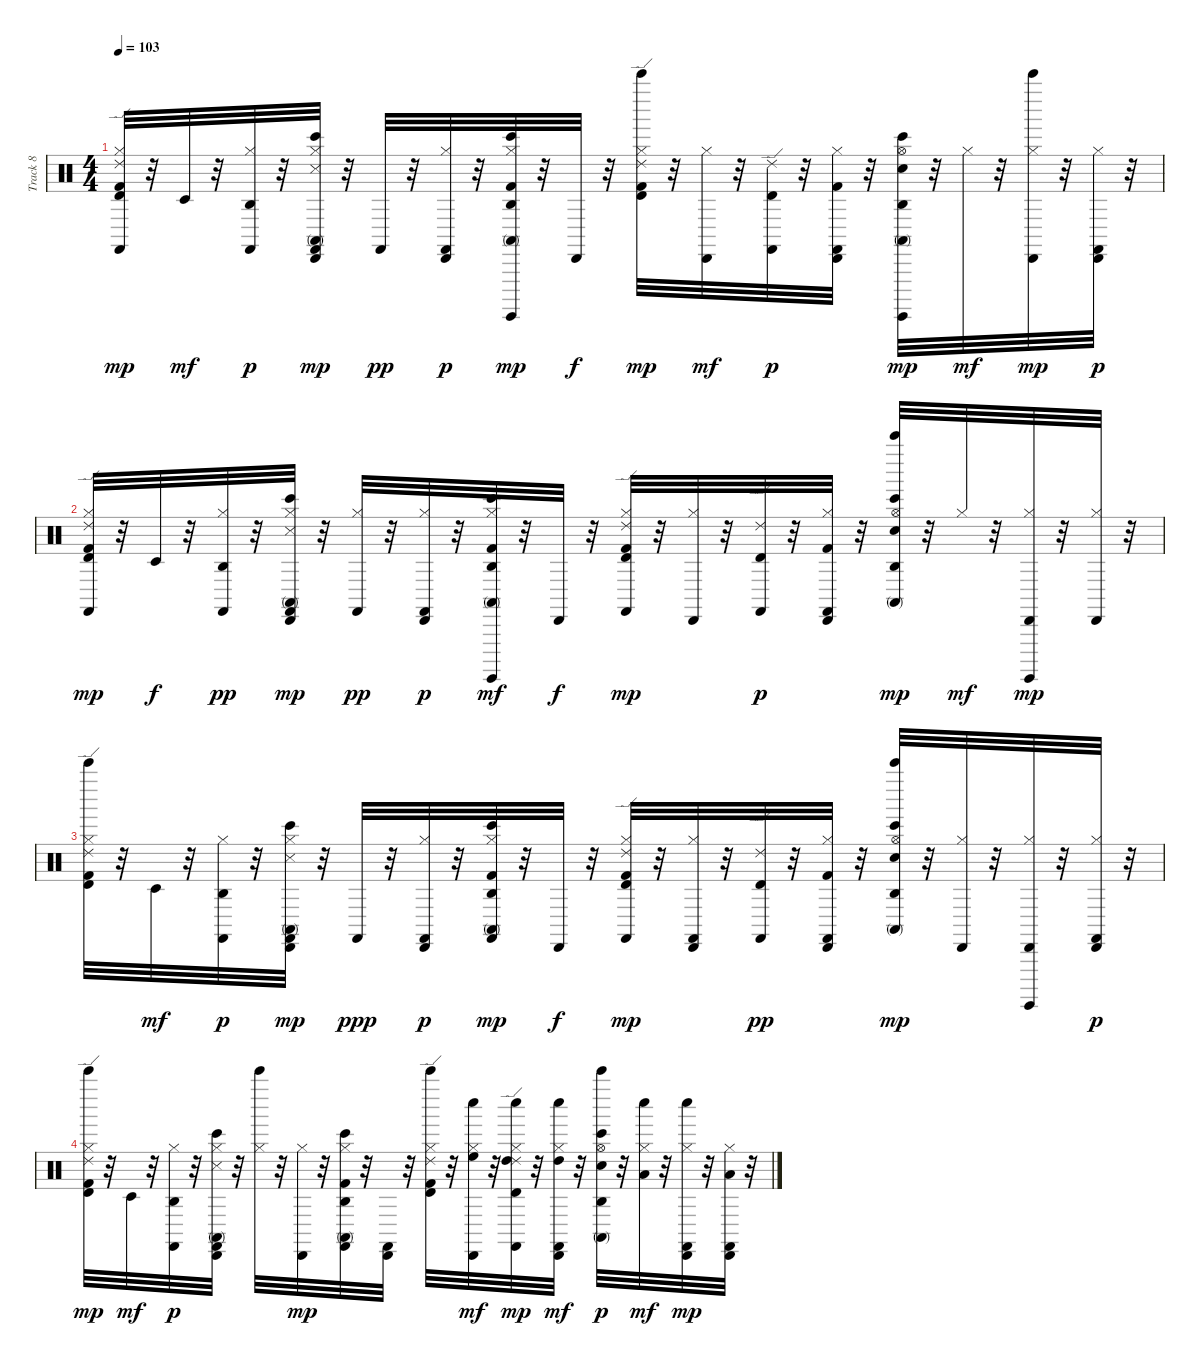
\track ("Track 8" "Track 8") {instrument percussion}
\staff {score}
\articulation defaults
\ts (4 4)
\tempo 103
\clef neutral
\ks c
("Ride (edge) 2" "Timbale high (hit)" "Kick (hit) 2" "Hi-Hat (closed)" "Castanets (hit)").32{dy mp} r.32 "Timbale low (hit)".32{dy mf} r.32 ("Agogo high (hit)" "Hi-Hat (closed)" "Castanets (hit)").32{dy p} r.32 ("Bongo High (hit)" "Conga high (mute)" "Cabasa (hit)" "Snare (side stick) 3" "Castanets (hit)" "Hi-Hat (closed)").32{dy mp} r.32 "Castanets (hit)".32{dy pp} r.32 ("Cabasa (hit)" "Hi-Hat (closed)" "Castanets (hit)").32{dy p} r.32 ("Bongo High (hit)" "Conga high (mute)" "Agogo high (hit)" "Kick (hit) 2" "Hi-Hat (closed)" "Surdo (hit)").32{dy mp} r.32 "Cabasa (hit)".32{dy f} r.32 ("Ride (edge) 2" "Timbale high (hit)" "Kick (hit) 2" "Hi-Hat (closed)" "Bell Tree (hit)").32{dy mp} r.32 ("Cabasa (hit)" "Hi-Hat (closed)").32{dy mf} r.32 ("Ride (edge) 2" "Timbale high (hit)" "Castanets (hit)").32{dy p} r.32 ("Cabasa (hit)" "Kick (hit) 2" "Hi-Hat (closed)" "Castanets (hit)").32 r.32 ("Bongo High (hit)" "Conga high (mute)" "Agogo high (hit)" "Electric Snare (hit)" "Hi-Hat (open)" "Surdo (hit)").32{dy mp} r.32 "Hi-Hat (closed)".32{dy mf} r.32 ("Cabasa (hit)" "Hi-Hat (closed)" "Bell Tree (hit)").32{dy mp} r.32 ("Cabasa (hit)" "Hi-Hat (closed)" "Castanets (hit)").32{dy p} r.32 |
("Ride (edge) 2" "Timbale high (hit)" "Kick (hit) 2" "Hi-Hat (closed)" "Castanets (hit)").32{dy mp} r.32 "Timbale low (hit)".32{dy f} r.32 ("Agogo high (hit)" "Hi-Hat (closed)" "Castanets (hit)").32{dy pp} r.32 ("Bongo High (hit)" "Conga high (mute)" "Cabasa (hit)" "Snare (side stick) 3" "Hi-Hat (closed)" "Castanets (hit)").32{dy mp} r.32 ("Hi-Hat (closed)" "Castanets (hit)").32{dy pp} r.32 ("Cabasa (hit)" "Hi-Hat (closed)" "Castanets (hit)").32{dy p} r.32 ("Bongo High (hit)" "Conga high (mute)" "Agogo high (hit)" "Kick (hit) 2" "Hi-Hat (closed)" "Surdo (hit)").32{dy mf} r.32 "Cabasa (hit)".32{dy f} r.32 ("Ride (edge) 2" "Timbale high (hit)" "Kick (hit) 2" "Hi-Hat (closed)" "Castanets (hit)").32{dy mp} r.32 ("Cabasa (hit)" "Hi-Hat (closed)").32 r.32 ("Ride (edge) 2" "Timbale high (hit)" "Castanets (hit)").32{dy p} r.32 ("Cabasa (hit)" "Kick (hit) 2" "Hi-Hat (closed)" "Castanets (hit)").32 r.32 ("Bongo High (hit)" "Conga high (mute)" "Agogo high (hit)" "Electric Snare (hit)" "Hi-Hat (open)" "Bell Tree (hit)").32{dy mp} r.32 "Hi-Hat (closed)".32{dy mf} r.32 ("Cabasa (hit)" "Hi-Hat (closed)" "Surdo (hit)").32{dy mp} r.32 ("Cabasa (hit)" "Hi-Hat (closed)").32 r.32 |
("Ride (edge) 2" "Timbale high (hit)" "Kick (hit) 2" "Hi-Hat (closed)" "Bell Tree (hit)").32 r.32 "Timbale low (hit)".32{dy mf} r.32 ("Agogo high (hit)" "Hi-Hat (closed)" "Castanets (hit)").32{dy p} r.32 ("Bongo High (hit)" "Conga high (mute)" "Cabasa (hit)" "Snare (side stick) 3" "Hi-Hat (closed)" "Castanets (hit)").32{dy mp} r.32 "Castanets (hit)".32{dy ppp} r.32 ("Cabasa (hit)" "Hi-Hat (closed)" "Castanets (hit)").32{dy p} r.32 ("Bongo High (hit)" "Conga high (mute)" "Agogo high (hit)" "Kick (hit) 2" "Hi-Hat (closed)" "Castanets (hit)").32{dy mp} r.32 "Cabasa (hit)".32{dy f} r.32 ("Ride (edge) 2" "Timbale high (hit)" "Kick (hit) 2" "Hi-Hat (closed)" "Castanets (hit)").32{dy mp} r.32 ("Cabasa (hit)" "Hi-Hat (closed)" "Castanets (hit)").32 r.32 ("Ride (edge) 2" "Timbale high (hit)" "Castanets (hit)").32{dy pp} r.32 ("Cabasa (hit)" "Kick (hit) 2" "Hi-Hat (closed)" "Castanets (hit)").32 r.32 ("Bongo High (hit)" "Conga high (mute)" "Agogo high (hit)" "Electric Snare (hit)" "Hi-Hat (open)" "Bell Tree (hit)").32{dy mp} r.32 ("Cabasa (hit)" "Hi-Hat (closed)").32 r.32 ("Cabasa (hit)" "Hi-Hat (closed)" "Surdo (hit)").32 r.32 ("Cabasa (hit)" "Hi-Hat (closed)" "Castanets (hit)").32{dy p} r.32 |
("Ride (edge) 2" "Timbale high (hit)" "Kick (hit) 2" "Hi-Hat (closed)" "Bell Tree (hit)").32{dy mp} r.32 "Timbale low (hit)".32{dy mf} r.32 ("Agogo high (hit)" "Hi-Hat (closed)" "Castanets (hit)").32{dy p} r.32 ("Bongo High (hit)" "Conga high (mute)" "Cabasa (hit)" "Hi-Hat (closed)" "Snare (side stick) 3" "Castanets (hit)").32 r.32 ("Hi-Hat (closed)" "Bell Tree (hit)").32 r.32 ("Cabasa (hit)" "Hi-Hat (closed)").32{dy mp} r.32 ("Bongo High (hit)" "Conga high (mute)" "Agogo high (hit)" "Kick (hit) 2" "Hi-Hat (closed)" "Castanets (hit)").32 r.32 ("Cabasa (hit)" "Castanets (hit)").32 r.32 ("Ride (edge) 2" "Timbale high (hit)" "Kick (hit) 2" "Hi-Hat (closed)" "Bell Tree (hit)").32 r.32 ("Cabasa (hit)" "Hi-Hat (closed)" "Whistle low (hit)" "High Floor Tom (hit)").32{dy mf} r.32 ("Ride (edge) 2" "Timbale high (hit)" "Hi-Hat (closed)" "Castanets (hit)" "Whistle low (hit)" "High Tom (hit)").32{dy mp} r.32 ("Cabasa (hit)" "Hi-Hat (closed)" "Castanets (hit)" "Whistle low (hit)" "High Tom (hit)").32{dy mf} r.32 ("Bongo High (hit)" "Conga high (mute)" "Agogo high (hit)" "Electric Snare (hit)" "Hi-Hat (open)" "Bell Tree (hit)").32{dy p} r.32 ("Hi-Hat (closed)" "Whistle low (hit)" "Low Tom (hit)").32{dy mf} r.32 ("Cabasa (hit)" "Hi-Hat (closed)" "Castanets (hit)" "Whistle low (hit)").32{dy mp} r.32 ("Cabasa (hit)" "Hi-Hat (closed)" "Castanets (hit)" "Low Tom (hit)").32 r.32
